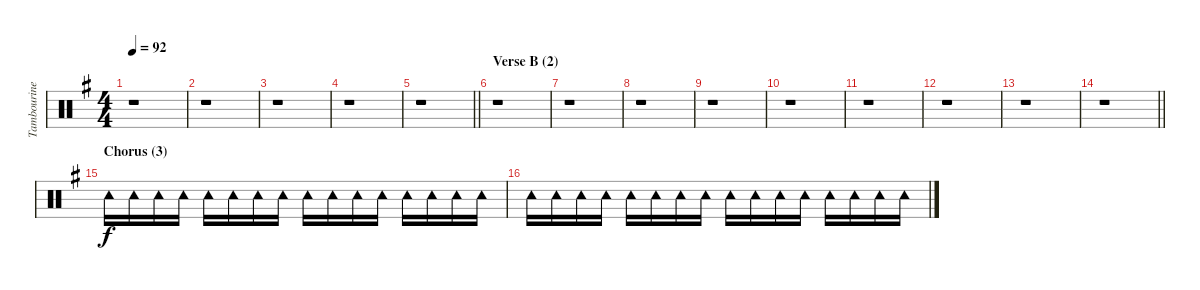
\track ("Tambourine" "Tambourine") {instrument percussion}
\staff {score}
\articulation defaults
\ts (4 4)
\tempo 92
\clef neutral
\ks g
r.1{dy f} |
r.1 |
r.1 |
r.1 |
\barLineRight lightlight
r.1 |
\section ("" "Verse B (2)")
r.1 |
r.1 |
r.1 |
r.1 |
r.1 |
r.1 |
r.1 |
r.1 |
\barLineRight lightlight
r.1 |
\section ("" "Chorus (3)")
"Tambourine (hit)".16 "Tambourine (hit)".16 "Tambourine (hit)".16 "Tambourine (hit)".16 "Tambourine (hit)".16 "Tambourine (hit)".16 "Tambourine (hit)".16 "Tambourine (hit)".16 "Tambourine (hit)".16 "Tambourine (hit)".16 "Tambourine (hit)".16 "Tambourine (hit)".16 "Tambourine (hit)".16 "Tambourine (hit)".16 "Tambourine (hit)".16 "Tambourine (hit)".16 |
"Tambourine (hit)".16 "Tambourine (hit)".16 "Tambourine (hit)".16 "Tambourine (hit)".16 "Tambourine (hit)".16 "Tambourine (hit)".16 "Tambourine (hit)".16 "Tambourine (hit)".16 "Tambourine (hit)".16 "Tambourine (hit)".16 "Tambourine (hit)".16 "Tambourine (hit)".16 "Tambourine (hit)".16 "Tambourine (hit)".16 "Tambourine (hit)".16 "Tambourine (hit)".16
